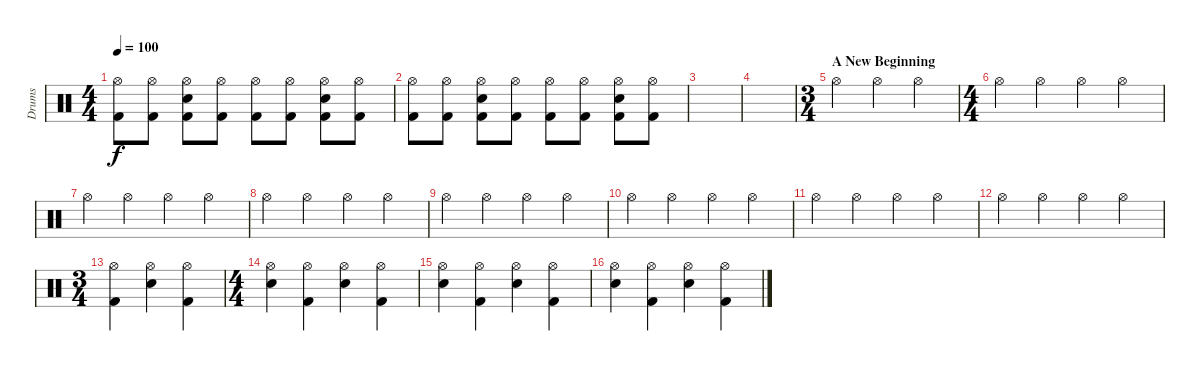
\track ("Drums" "Drums") {instrument percussion}
\staff {score}
\articulation defaults
\ts (4 4)
\tempo 100
\clef neutral
\ks c
("Hi-Hat (open)" "Kick (hit) 2").8{dy f} ("Hi-Hat (open)" "Kick (hit) 2").8 ("Hi-Hat (open)" "Electric Snare (hit)" "Kick (hit) 2").8 ("Hi-Hat (open)" "Kick (hit) 2").8 ("Hi-Hat (open)" "Kick (hit) 2").8 ("Hi-Hat (open)" "Kick (hit) 2").8 ("Hi-Hat (open)" "Electric Snare (hit)" "Kick (hit) 2").8 ("Hi-Hat (open)" "Kick (hit) 2").8 |
("Hi-Hat (open)" "Kick (hit) 2").8 ("Hi-Hat (open)" "Kick (hit) 2").8 ("Hi-Hat (open)" "Electric Snare (hit)" "Kick (hit) 2").8 ("Hi-Hat (open)" "Kick (hit) 2").8 ("Hi-Hat (open)" "Kick (hit) 2").8 ("Hi-Hat (open)" "Kick (hit) 2").8 ("Hi-Hat (open)" "Electric Snare (hit)" "Kick (hit) 2").8 ("Hi-Hat (open)" "Kick (hit) 2").8 |
|
|
\ts (3 4)
\section ("" "A New Beginning")
"Hi-Hat (open)".4 "Hi-Hat (open)".4 "Hi-Hat (open)".4 |
\ts (4 4)
"Hi-Hat (open)".4 "Hi-Hat (open)".4 "Hi-Hat (open)".4 "Hi-Hat (open)".4 |
"Hi-Hat (open)".4 "Hi-Hat (open)".4 "Hi-Hat (open)".4 "Hi-Hat (open)".4 |
"Hi-Hat (open)".4 "Hi-Hat (open)".4 "Hi-Hat (open)".4 "Hi-Hat (open)".4 |
"Hi-Hat (open)".4 "Hi-Hat (open)".4 "Hi-Hat (open)".4 "Hi-Hat (open)".4 |
"Hi-Hat (open)".4 "Hi-Hat (open)".4 "Hi-Hat (open)".4 "Hi-Hat (open)".4 |
"Hi-Hat (open)".4 "Hi-Hat (open)".4 "Hi-Hat (open)".4 "Hi-Hat (open)".4 |
"Hi-Hat (open)".4 "Hi-Hat (open)".4 "Hi-Hat (open)".4 "Hi-Hat (open)".4 |
\ts (3 4)
("Hi-Hat (open)" "Kick (hit) 2").4 ("Hi-Hat (open)" "Electric Snare (hit)").4 ("Hi-Hat (open)" "Kick (hit) 2").4 |
\ts (4 4)
("Hi-Hat (open)" "Electric Snare (hit)").4 ("Hi-Hat (open)" "Kick (hit) 2").4 ("Hi-Hat (open)" "Electric Snare (hit)").4 ("Hi-Hat (open)" "Kick (hit) 2").4 |
("Hi-Hat (open)" "Electric Snare (hit)").4 ("Hi-Hat (open)" "Kick (hit) 2").4 ("Hi-Hat (open)" "Electric Snare (hit)").4 ("Hi-Hat (open)" "Kick (hit) 2").4 |
("Hi-Hat (open)" "Electric Snare (hit)").4 ("Hi-Hat (open)" "Kick (hit) 2").4 ("Hi-Hat (open)" "Electric Snare (hit)").4 ("Hi-Hat (open)" "Kick (hit) 2").4
